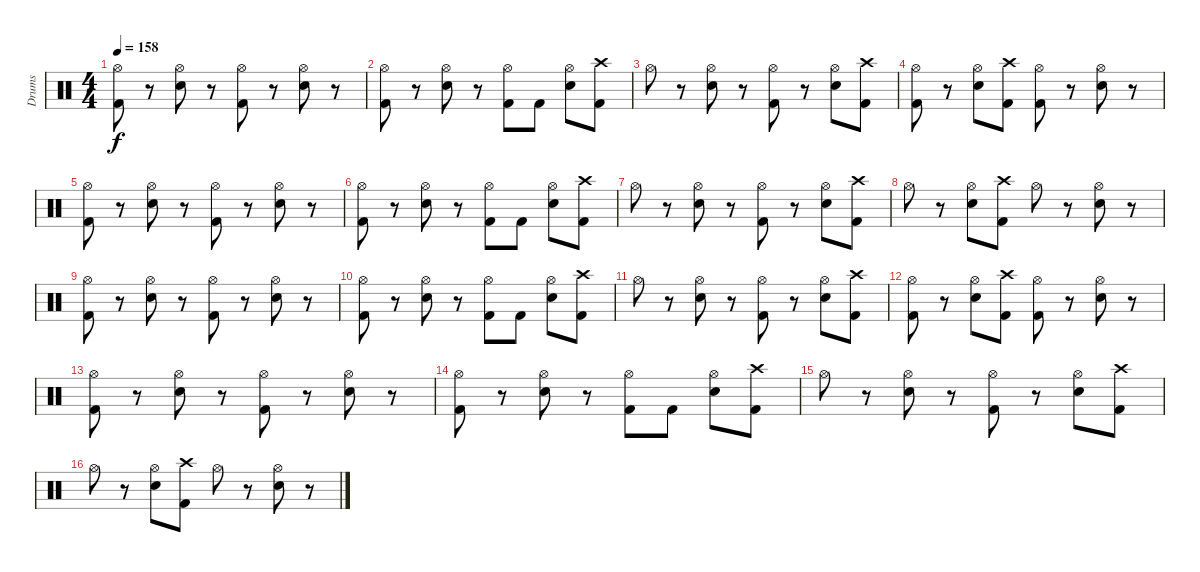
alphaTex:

\track ("Drums" "Drums") {instrument percussion}
\staff {score}
\articulation defaults
\ts (4 4)
\tempo 158
\clef neutral
\ks c
("Hi-Hat (open)" "Kick (hit) 2").8{dy f} r.8 ("Hi-Hat (open)" "Snare (hit) 2").8 r.8 ("Hi-Hat (open)" "Kick (hit) 2").8 r.8 ("Hi-Hat (open)" "Snare (hit) 2").8 r.8 |
("Hi-Hat (open)" "Kick (hit) 2").8 r.8 ("Hi-Hat (open)" "Snare (hit) 2").8 r.8 ("Hi-Hat (open)" "Kick (hit) 2").8 "Kick (hit) 2".8 ("Hi-Hat (open)" "Snare (hit) 2").8 ("Crash high (hit)" "Kick (hit) 2").8 |
"Hi-Hat (open)".8 r.8 ("Hi-Hat (open)" "Snare (hit) 2").8 r.8 ("Hi-Hat (open)" "Kick (hit) 2").8 r.8 ("Hi-Hat (open)" "Snare (hit) 2").8 ("Crash high (hit)" "Kick (hit) 2").8 |
("Hi-Hat (open)" "Kick (hit) 2").8 r.8 ("Hi-Hat (open)" "Snare (hit) 2").8 ("Crash high (hit)" "Kick (hit) 2").8 ("Hi-Hat (open)" "Kick (hit) 2").8 r.8 ("Hi-Hat (open)" "Snare (hit) 2").8 r.8 |
("Hi-Hat (open)" "Kick (hit) 2").8 r.8 ("Hi-Hat (open)" "Snare (hit) 2").8 r.8 ("Hi-Hat (open)" "Kick (hit) 2").8 r.8 ("Hi-Hat (open)" "Snare (hit) 2").8 r.8 |
("Hi-Hat (open)" "Kick (hit) 2").8 r.8 ("Hi-Hat (open)" "Snare (hit) 2").8 r.8 ("Hi-Hat (open)" "Kick (hit) 2").8 "Kick (hit) 2".8 ("Hi-Hat (open)" "Snare (hit) 2").8 ("Crash high (hit)" "Kick (hit) 2").8 |
"Hi-Hat (open)".8 r.8 ("Hi-Hat (open)" "Snare (hit) 2").8 r.8 ("Hi-Hat (open)" "Kick (hit) 2").8 r.8 ("Hi-Hat (open)" "Snare (hit) 2").8 ("Crash high (hit)" "Kick (hit) 2").8 |
"Hi-Hat (open)".8 r.8 ("Hi-Hat (open)" "Snare (hit) 2").8 ("Crash high (hit)" "Kick (hit) 2").8 "Hi-Hat (open)".8 r.8 ("Hi-Hat (open)" "Snare (hit) 2").8 r.8 |
("Hi-Hat (open)" "Kick (hit) 2").8 r.8 ("Hi-Hat (open)" "Snare (hit) 2").8 r.8 ("Hi-Hat (open)" "Kick (hit) 2").8 r.8 ("Hi-Hat (open)" "Snare (hit) 2").8 r.8 |
("Hi-Hat (open)" "Kick (hit) 2").8 r.8 ("Hi-Hat (open)" "Snare (hit) 2").8 r.8 ("Hi-Hat (open)" "Kick (hit) 2").8 "Kick (hit) 2".8 ("Hi-Hat (open)" "Snare (hit) 2").8 ("Crash high (hit)" "Kick (hit) 2").8 |
"Hi-Hat (open)".8 r.8 ("Hi-Hat (open)" "Snare (hit) 2").8 r.8 ("Hi-Hat (open)" "Kick (hit) 2").8 r.8 ("Hi-Hat (open)" "Snare (hit) 2").8 ("Crash high (hit)" "Kick (hit) 2").8 |
("Hi-Hat (open)" "Kick (hit) 2").8 r.8 ("Hi-Hat (open)" "Snare (hit) 2").8 ("Crash high (hit)" "Kick (hit) 2").8 ("Hi-Hat (open)" "Kick (hit) 2").8 r.8 ("Hi-Hat (open)" "Snare (hit) 2").8 r.8 |
("Hi-Hat (open)" "Kick (hit) 2").8 r.8 ("Hi-Hat (open)" "Snare (hit) 2").8 r.8 ("Hi-Hat (open)" "Kick (hit) 2").8 r.8 ("Hi-Hat (open)" "Snare (hit) 2").8 r.8 |
("Hi-Hat (open)" "Kick (hit) 2").8 r.8 ("Hi-Hat (open)" "Snare (hit) 2").8 r.8 ("Hi-Hat (open)" "Kick (hit) 2").8 "Kick (hit) 2".8 ("Hi-Hat (open)" "Snare (hit) 2").8 ("Crash high (hit)" "Kick (hit) 2").8 |
"Hi-Hat (open)".8 r.8 ("Hi-Hat (open)" "Snare (hit) 2").8 r.8 ("Hi-Hat (open)" "Kick (hit) 2").8 r.8 ("Hi-Hat (open)" "Snare (hit) 2").8 ("Crash high (hit)" "Kick (hit) 2").8 |
"Hi-Hat (open)".8 r.8 ("Hi-Hat (open)" "Snare (hit) 2").8 ("Crash high (hit)" "Kick (hit) 2").8 "Hi-Hat (open)".8 r.8 ("Hi-Hat (open)" "Snare (hit) 2").8 r.8
